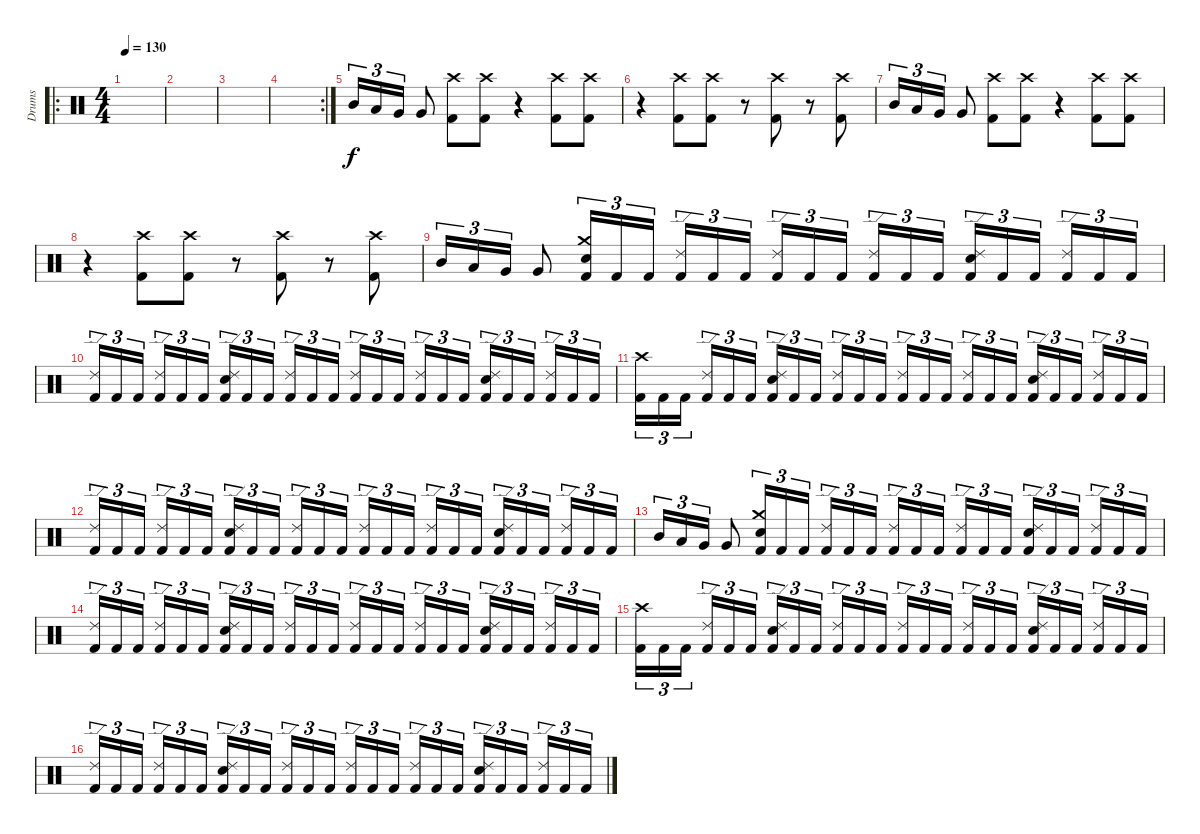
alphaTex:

\track ("Drums" "Drums") {instrument percussion}
\staff {score}
\articulation defaults
\ro
\ts (4 4)
\tempo 130
\clef neutral
\ks c
|
|
|
\rc 2
|
"Mid Tom (hit)".16{tu (3 2)} "Low Tom (hit)".16{tu (3 2)} "Very Low Tom (hit)".16{tu (3 2)} "Very Low Tom (hit)".8 ("Crash high (hit)" "Kick (hit) 2").8 ("Crash high (hit)" "Kick (hit) 2").8 r.4 ("Crash high (hit)" "Kick (hit) 2").8 ("Crash high (hit)" "Kick (hit) 2").8 |
r.4 ("Crash high (hit)" "Kick (hit) 2").8 ("Crash high (hit)" "Kick (hit) 2").8 r.8 ("Crash high (hit)" "Kick (hit) 2").8 r.8 ("Crash high (hit)" "Kick (hit) 2").8 |
"Mid Tom (hit)".16{tu (3 2)} "Low Tom (hit)".16{tu (3 2)} "Very Low Tom (hit)".16{tu (3 2)} "Very Low Tom (hit)".8 ("Crash high (hit)" "Kick (hit) 2").8 ("Crash high (hit)" "Kick (hit) 2").8 r.4 ("Crash high (hit)" "Kick (hit) 2").8 ("Crash high (hit)" "Kick (hit) 2").8 |
r.4 ("Crash high (hit)" "Kick (hit) 2").8 ("Crash high (hit)" "Kick (hit) 2").8 r.8 ("Crash high (hit)" "Kick (hit) 2").8 r.8 ("Crash high (hit)" "Kick (hit) 2").8 |
"Mid Tom (hit)".16{tu (3 2)} "Low Tom (hit)".16{tu (3 2)} "Very Low Tom (hit)".16{tu (3 2)} "Very Low Tom (hit)".8 ("Crash medium (hit)" "Electric Snare (hit)" "Kick (hit) 2").16{tu (3 2)} "Kick (hit) 2".16{tu (3 2)} "Kick (hit) 2".16{tu (3 2) beam splitsecondary} ("Ride (edge) 2" "Kick (hit) 2").16{tu (3 2)} "Kick (hit) 2".16{tu (3 2)} "Kick (hit) 2".16{tu (3 2)} ("Ride (edge) 2" "Kick (hit) 2").16{tu (3 2)} "Kick (hit) 2".16{tu (3 2)} "Kick (hit) 2".16{tu (3 2) beam splitsecondary} ("Ride (edge) 2" "Kick (hit) 2").16{tu (3 2)} "Kick (hit) 2".16{tu (3 2)} "Kick (hit) 2".16{tu (3 2)} ("Ride (edge) 2" "Electric Snare (hit)" "Kick (hit) 2").16{tu (3 2)} "Kick (hit) 2".16{tu (3 2)} "Kick (hit) 2".16{tu (3 2) beam splitsecondary} ("Ride (edge) 2" "Kick (hit) 2").16{tu (3 2)} "Kick (hit) 2".16{tu (3 2)} "Kick (hit) 2".16{tu (3 2)} |
("Ride (edge) 2" "Kick (hit) 2").16{tu (3 2)} "Kick (hit) 2".16{tu (3 2)} "Kick (hit) 2".16{tu (3 2) beam splitsecondary} ("Ride (edge) 2" "Kick (hit) 2").16{tu (3 2)} "Kick (hit) 2".16{tu (3 2)} "Kick (hit) 2".16{tu (3 2)} ("Ride (edge) 2" "Electric Snare (hit)" "Kick (hit) 2").16{tu (3 2)} "Kick (hit) 2".16{tu (3 2)} "Kick (hit) 2".16{tu (3 2) beam splitsecondary} ("Ride (edge) 2" "Kick (hit) 2").16{tu (3 2)} "Kick (hit) 2".16{tu (3 2)} "Kick (hit) 2".16{tu (3 2)} ("Ride (edge) 2" "Kick (hit) 2").16{tu (3 2)} "Kick (hit) 2".16{tu (3 2)} "Kick (hit) 2".16{tu (3 2) beam splitsecondary} ("Ride (edge) 2" "Kick (hit) 2").16{tu (3 2)} "Kick (hit) 2".16{tu (3 2)} "Kick (hit) 2".16{tu (3 2)} ("Ride (edge) 2" "Electric Snare (hit)" "Kick (hit) 2").16{tu (3 2)} "Kick (hit) 2".16{tu (3 2)} "Kick (hit) 2".16{tu (3 2) beam splitsecondary} ("Ride (edge) 2" "Kick (hit) 2").16{tu (3 2)} "Kick (hit) 2".16{tu (3 2)} "Kick (hit) 2".16{tu (3 2)} |
("Crash high (hit)" "Kick (hit) 2").16{tu (3 2)} "Kick (hit) 2".16{tu (3 2)} "Kick (hit) 2".16{tu (3 2) beam splitsecondary} ("Ride (edge) 2" "Kick (hit) 2").16{tu (3 2)} "Kick (hit) 2".16{tu (3 2)} "Kick (hit) 2".16{tu (3 2)} ("Ride (edge) 2" "Electric Snare (hit)" "Kick (hit) 2").16{tu (3 2)} "Kick (hit) 2".16{tu (3 2)} "Kick (hit) 2".16{tu (3 2) beam splitsecondary} ("Ride (edge) 2" "Kick (hit) 2").16{tu (3 2)} "Kick (hit) 2".16{tu (3 2)} "Kick (hit) 2".16{tu (3 2)} ("Ride (edge) 2" "Kick (hit) 2").16{tu (3 2)} "Kick (hit) 2".16{tu (3 2)} "Kick (hit) 2".16{tu (3 2) beam splitsecondary} ("Ride (edge) 2" "Kick (hit) 2").16{tu (3 2)} "Kick (hit) 2".16{tu (3 2)} "Kick (hit) 2".16{tu (3 2)} ("Ride (edge) 2" "Electric Snare (hit)" "Kick (hit) 2").16{tu (3 2)} "Kick (hit) 2".16{tu (3 2)} "Kick (hit) 2".16{tu (3 2) beam splitsecondary} ("Ride (edge) 2" "Kick (hit) 2").16{tu (3 2)} "Kick (hit) 2".16{tu (3 2)} "Kick (hit) 2".16{tu (3 2)} |
("Ride (edge) 2" "Kick (hit) 2").16{tu (3 2)} "Kick (hit) 2".16{tu (3 2)} "Kick (hit) 2".16{tu (3 2) beam splitsecondary} ("Ride (edge) 2" "Kick (hit) 2").16{tu (3 2)} "Kick (hit) 2".16{tu (3 2)} "Kick (hit) 2".16{tu (3 2)} ("Ride (edge) 2" "Electric Snare (hit)" "Kick (hit) 2").16{tu (3 2)} "Kick (hit) 2".16{tu (3 2)} "Kick (hit) 2".16{tu (3 2) beam splitsecondary} ("Ride (edge) 2" "Kick (hit) 2").16{tu (3 2)} "Kick (hit) 2".16{tu (3 2)} "Kick (hit) 2".16{tu (3 2)} ("Ride (edge) 2" "Kick (hit) 2").16{tu (3 2)} "Kick (hit) 2".16{tu (3 2)} "Kick (hit) 2".16{tu (3 2) beam splitsecondary} ("Ride (edge) 2" "Kick (hit) 2").16{tu (3 2)} "Kick (hit) 2".16{tu (3 2)} "Kick (hit) 2".16{tu (3 2)} ("Ride (edge) 2" "Electric Snare (hit)" "Kick (hit) 2").16{tu (3 2)} "Kick (hit) 2".16{tu (3 2)} "Kick (hit) 2".16{tu (3 2) beam splitsecondary} ("Ride (edge) 2" "Kick (hit) 2").16{tu (3 2)} "Kick (hit) 2".16{tu (3 2)} "Kick (hit) 2".16{tu (3 2)} |
"Mid Tom (hit)".16{tu (3 2)} "Low Tom (hit)".16{tu (3 2)} "Very Low Tom (hit)".16{tu (3 2)} "Very Low Tom (hit)".8 ("Crash medium (hit)" "Electric Snare (hit)" "Kick (hit) 2").16{tu (3 2)} "Kick (hit) 2".16{tu (3 2)} "Kick (hit) 2".16{tu (3 2) beam splitsecondary} ("Ride (edge) 2" "Kick (hit) 2").16{tu (3 2)} "Kick (hit) 2".16{tu (3 2)} "Kick (hit) 2".16{tu (3 2)} ("Ride (edge) 2" "Kick (hit) 2").16{tu (3 2)} "Kick (hit) 2".16{tu (3 2)} "Kick (hit) 2".16{tu (3 2) beam splitsecondary} ("Ride (edge) 2" "Kick (hit) 2").16{tu (3 2)} "Kick (hit) 2".16{tu (3 2)} "Kick (hit) 2".16{tu (3 2)} ("Ride (edge) 2" "Electric Snare (hit)" "Kick (hit) 2").16{tu (3 2)} "Kick (hit) 2".16{tu (3 2)} "Kick (hit) 2".16{tu (3 2) beam splitsecondary} ("Ride (edge) 2" "Kick (hit) 2").16{tu (3 2)} "Kick (hit) 2".16{tu (3 2)} "Kick (hit) 2".16{tu (3 2)} |
("Ride (edge) 2" "Kick (hit) 2").16{tu (3 2)} "Kick (hit) 2".16{tu (3 2)} "Kick (hit) 2".16{tu (3 2) beam splitsecondary} ("Ride (edge) 2" "Kick (hit) 2").16{tu (3 2)} "Kick (hit) 2".16{tu (3 2)} "Kick (hit) 2".16{tu (3 2)} ("Ride (edge) 2" "Electric Snare (hit)" "Kick (hit) 2").16{tu (3 2)} "Kick (hit) 2".16{tu (3 2)} "Kick (hit) 2".16{tu (3 2) beam splitsecondary} ("Ride (edge) 2" "Kick (hit) 2").16{tu (3 2)} "Kick (hit) 2".16{tu (3 2)} "Kick (hit) 2".16{tu (3 2)} ("Ride (edge) 2" "Kick (hit) 2").16{tu (3 2)} "Kick (hit) 2".16{tu (3 2)} "Kick (hit) 2".16{tu (3 2) beam splitsecondary} ("Ride (edge) 2" "Kick (hit) 2").16{tu (3 2)} "Kick (hit) 2".16{tu (3 2)} "Kick (hit) 2".16{tu (3 2)} ("Ride (edge) 2" "Electric Snare (hit)" "Kick (hit) 2").16{tu (3 2)} "Kick (hit) 2".16{tu (3 2)} "Kick (hit) 2".16{tu (3 2) beam splitsecondary} ("Ride (edge) 2" "Kick (hit) 2").16{tu (3 2)} "Kick (hit) 2".16{tu (3 2)} "Kick (hit) 2".16{tu (3 2)} |
("Crash high (hit)" "Kick (hit) 2").16{tu (3 2)} "Kick (hit) 2".16{tu (3 2)} "Kick (hit) 2".16{tu (3 2) beam splitsecondary} ("Ride (edge) 2" "Kick (hit) 2").16{tu (3 2)} "Kick (hit) 2".16{tu (3 2)} "Kick (hit) 2".16{tu (3 2)} ("Ride (edge) 2" "Electric Snare (hit)" "Kick (hit) 2").16{tu (3 2)} "Kick (hit) 2".16{tu (3 2)} "Kick (hit) 2".16{tu (3 2) beam splitsecondary} ("Ride (edge) 2" "Kick (hit) 2").16{tu (3 2)} "Kick (hit) 2".16{tu (3 2)} "Kick (hit) 2".16{tu (3 2)} ("Ride (edge) 2" "Kick (hit) 2").16{tu (3 2)} "Kick (hit) 2".16{tu (3 2)} "Kick (hit) 2".16{tu (3 2) beam splitsecondary} ("Ride (edge) 2" "Kick (hit) 2").16{tu (3 2)} "Kick (hit) 2".16{tu (3 2)} "Kick (hit) 2".16{tu (3 2)} ("Ride (edge) 2" "Electric Snare (hit)" "Kick (hit) 2").16{tu (3 2)} "Kick (hit) 2".16{tu (3 2)} "Kick (hit) 2".16{tu (3 2) beam splitsecondary} ("Ride (edge) 2" "Kick (hit) 2").16{tu (3 2)} "Kick (hit) 2".16{tu (3 2)} "Kick (hit) 2".16{tu (3 2)} |
("Ride (edge) 2" "Kick (hit) 2").16{tu (3 2)} "Kick (hit) 2".16{tu (3 2)} "Kick (hit) 2".16{tu (3 2) beam splitsecondary} ("Ride (edge) 2" "Kick (hit) 2").16{tu (3 2)} "Kick (hit) 2".16{tu (3 2)} "Kick (hit) 2".16{tu (3 2)} ("Ride (edge) 2" "Electric Snare (hit)" "Kick (hit) 2").16{tu (3 2)} "Kick (hit) 2".16{tu (3 2)} "Kick (hit) 2".16{tu (3 2) beam splitsecondary} ("Ride (edge) 2" "Kick (hit) 2").16{tu (3 2)} "Kick (hit) 2".16{tu (3 2)} "Kick (hit) 2".16{tu (3 2)} ("Ride (edge) 2" "Kick (hit) 2").16{tu (3 2)} "Kick (hit) 2".16{tu (3 2)} "Kick (hit) 2".16{tu (3 2) beam splitsecondary} ("Ride (edge) 2" "Kick (hit) 2").16{tu (3 2)} "Kick (hit) 2".16{tu (3 2)} "Kick (hit) 2".16{tu (3 2)} ("Ride (edge) 2" "Electric Snare (hit)" "Kick (hit) 2").16{tu (3 2)} "Kick (hit) 2".16{tu (3 2)} "Kick (hit) 2".16{tu (3 2) beam splitsecondary} ("Ride (edge) 2" "Kick (hit) 2").16{tu (3 2)} "Kick (hit) 2".16{tu (3 2)} "Kick (hit) 2".16{tu (3 2)}
